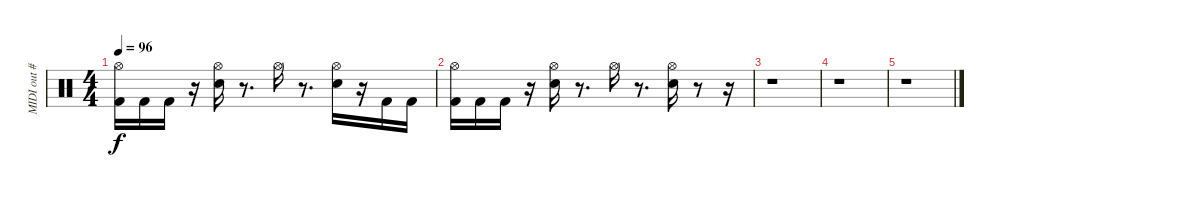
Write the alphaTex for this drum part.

\track ("MIDI out #3" "MIDI out #") {instrument percussion}
\staff {score}
\articulation defaults
\ts (4 4)
\tempo 96
\clef neutral
\ks c
("Hi-Hat (open)" "Kick (hit) 2").16{dy f} "Kick (hit) 2".16 "Kick (hit) 2".16 r.16 ("Snare (hit) 2" "Hi-Hat (open)").16 r.8{d} "Hi-Hat (open)".16 r.8{d} ("Snare (hit) 2" "Hi-Hat (open)").16 r.16 "Kick (hit) 2".16 "Kick (hit) 2".16 |
("Hi-Hat (open)" "Kick (hit) 2").16 "Kick (hit) 2".16 "Kick (hit) 2".16 r.16 ("Snare (hit) 2" "Hi-Hat (open)").16 r.8{d} "Hi-Hat (open)".16 r.8{d} ("Snare (hit) 2" "Hi-Hat (open)").16 r.8 r.16 |
r.1 |
r.1 |
r.1
